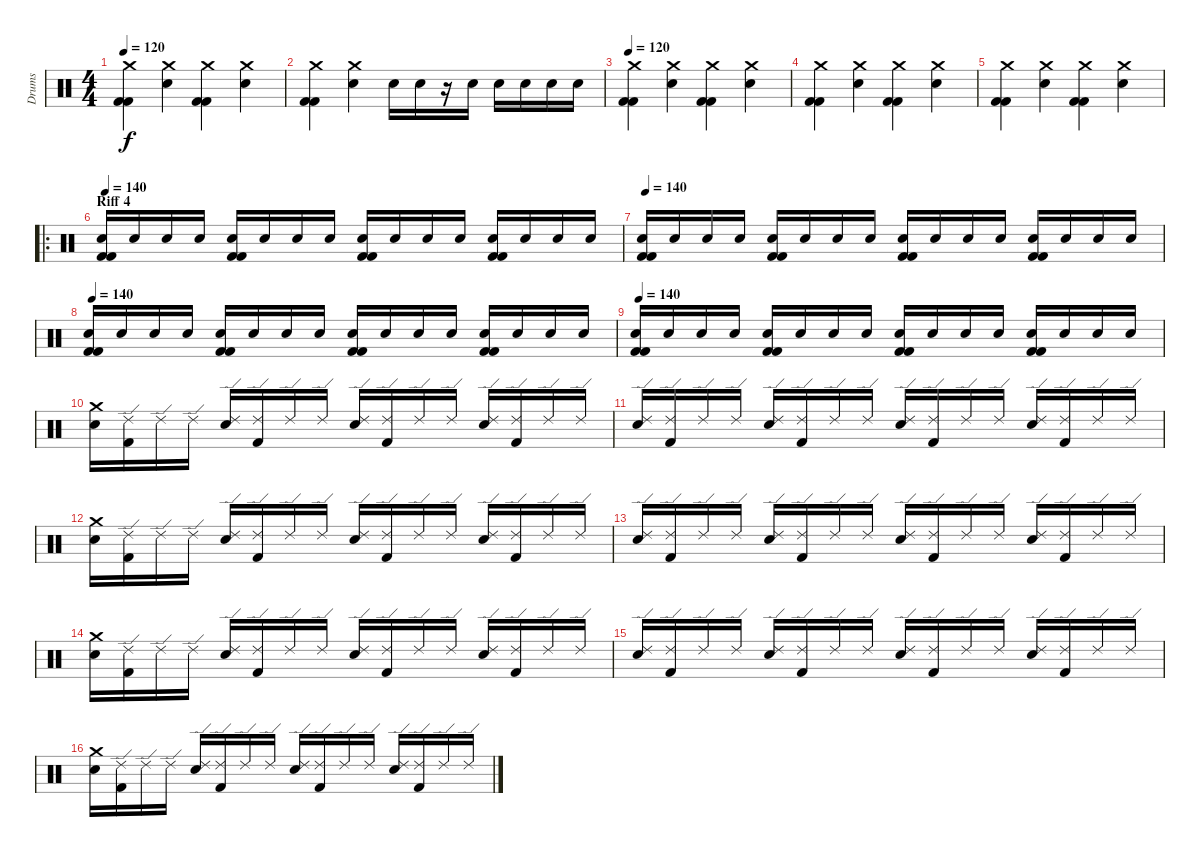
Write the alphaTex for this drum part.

\track ("Drums" "Drums") {instrument percussion}
\staff {score}
\articulation defaults
\ts (4 4)
\tempo 120
\clef neutral
\ks c
("Crash medium (hit)" "Kick (hit) 2" "Kick (hit) 2").4{dy f} ("Electric Snare (hit)" "Crash medium (hit)").4 ("Kick (hit) 2" "Kick (hit) 2" "Crash medium (hit)").4 ("Crash medium (hit)" "Electric Snare (hit)").4 |
("Crash medium (hit)" "Kick (hit) 2" "Kick (hit) 2").4 ("Electric Snare (hit)" "Crash medium (hit)").4 "Electric Snare (hit)".16 "Electric Snare (hit)".16 r.16 "Electric Snare (hit)".16 "Electric Snare (hit)".16 "Electric Snare (hit)".16 "Electric Snare (hit)".16 "Electric Snare (hit)".16 |
\tempo 120
("Crash medium (hit)" "Kick (hit) 2" "Kick (hit) 2").4 ("Electric Snare (hit)" "Crash medium (hit)").4 ("Kick (hit) 2" "Kick (hit) 2" "Crash medium (hit)").4 ("Crash medium (hit)" "Electric Snare (hit)").4 |
("Crash medium (hit)" "Kick (hit) 2" "Kick (hit) 2").4 ("Electric Snare (hit)" "Crash medium (hit)").4 ("Kick (hit) 2" "Kick (hit) 2" "Crash medium (hit)").4 ("Crash medium (hit)" "Electric Snare (hit)").4 |
("Crash medium (hit)" "Kick (hit) 2" "Kick (hit) 2").4 ("Electric Snare (hit)" "Crash medium (hit)").4 ("Kick (hit) 2" "Kick (hit) 2" "Crash medium (hit)").4 ("Crash medium (hit)" "Electric Snare (hit)").4 |
\ro
\section ("" "Riff 4 ")
\tempo 140
("Kick (hit) 2" "Electric Snare (hit)" "Kick (hit) 2").16 "Electric Snare (hit)".16 "Electric Snare (hit)".16 "Electric Snare (hit)".16 ("Kick (hit) 2" "Kick (hit) 2" "Electric Snare (hit)").16 "Electric Snare (hit)".16 "Electric Snare (hit)".16 "Electric Snare (hit)".16 ("Kick (hit) 2" "Kick (hit) 2" "Electric Snare (hit)").16 "Electric Snare (hit)".16 "Electric Snare (hit)".16 "Electric Snare (hit)".16 ("Kick (hit) 2" "Kick (hit) 2" "Electric Snare (hit)").16 "Electric Snare (hit)".16 "Electric Snare (hit)".16 "Electric Snare (hit)".16 |
\tempo 140
("Kick (hit) 2" "Electric Snare (hit)" "Kick (hit) 2").16 "Electric Snare (hit)".16 "Electric Snare (hit)".16 "Electric Snare (hit)".16 ("Kick (hit) 2" "Kick (hit) 2" "Electric Snare (hit)").16 "Electric Snare (hit)".16 "Electric Snare (hit)".16 "Electric Snare (hit)".16 ("Kick (hit) 2" "Kick (hit) 2" "Electric Snare (hit)").16 "Electric Snare (hit)".16 "Electric Snare (hit)".16 "Electric Snare (hit)".16 ("Kick (hit) 2" "Kick (hit) 2" "Electric Snare (hit)").16 "Electric Snare (hit)".16 "Electric Snare (hit)".16 "Electric Snare (hit)".16 |
\tempo 140
("Kick (hit) 2" "Electric Snare (hit)" "Kick (hit) 2").16 "Electric Snare (hit)".16 "Electric Snare (hit)".16 "Electric Snare (hit)".16 ("Kick (hit) 2" "Kick (hit) 2" "Electric Snare (hit)").16 "Electric Snare (hit)".16 "Electric Snare (hit)".16 "Electric Snare (hit)".16 ("Kick (hit) 2" "Kick (hit) 2" "Electric Snare (hit)").16 "Electric Snare (hit)".16 "Electric Snare (hit)".16 "Electric Snare (hit)".16 ("Kick (hit) 2" "Kick (hit) 2" "Electric Snare (hit)").16 "Electric Snare (hit)".16 "Electric Snare (hit)".16 "Electric Snare (hit)".16 |
\tempo 140
("Kick (hit) 2" "Electric Snare (hit)" "Kick (hit) 2").16 "Electric Snare (hit)".16 "Electric Snare (hit)".16 "Electric Snare (hit)".16 ("Kick (hit) 2" "Kick (hit) 2" "Electric Snare (hit)").16 "Electric Snare (hit)".16 "Electric Snare (hit)".16 "Electric Snare (hit)".16 ("Kick (hit) 2" "Kick (hit) 2" "Electric Snare (hit)").16 "Electric Snare (hit)".16 "Electric Snare (hit)".16 "Electric Snare (hit)".16 ("Kick (hit) 2" "Kick (hit) 2" "Electric Snare (hit)").16 "Electric Snare (hit)".16 "Electric Snare (hit)".16 "Electric Snare (hit)".16 |
("Crash medium (hit)" "Electric Snare (hit)").16 ("Ride (edge) 2" "Kick (hit) 2").16 "Ride (edge) 2".16 "Ride (edge) 2".16 ("Electric Snare (hit)" "Ride (edge) 2").16 ("Ride (edge) 2" "Kick (hit) 2").16 "Ride (edge) 2".16 "Ride (edge) 2".16 ("Ride (edge) 2" "Electric Snare (hit)").16 ("Kick (hit) 2" "Ride (edge) 2").16 "Ride (edge) 2".16 "Ride (edge) 2".16 ("Ride (edge) 2" "Electric Snare (hit)").16 ("Kick (hit) 2" "Ride (edge) 2").16 "Ride (edge) 2".16 "Ride (edge) 2".16 |
("Ride (edge) 2" "Electric Snare (hit)").16 ("Ride (edge) 2" "Kick (hit) 2").16 "Ride (edge) 2".16 "Ride (edge) 2".16 ("Electric Snare (hit)" "Ride (edge) 2").16 ("Ride (edge) 2" "Kick (hit) 2").16 "Ride (edge) 2".16 "Ride (edge) 2".16 ("Ride (edge) 2" "Electric Snare (hit)").16 ("Kick (hit) 2" "Ride (edge) 2").16 "Ride (edge) 2".16 "Ride (edge) 2".16 ("Ride (edge) 2" "Electric Snare (hit)").16 ("Kick (hit) 2" "Ride (edge) 2").16 "Ride (edge) 2".16 "Ride (edge) 2".16 |
("Crash medium (hit)" "Electric Snare (hit)").16 ("Ride (edge) 2" "Kick (hit) 2").16 "Ride (edge) 2".16 "Ride (edge) 2".16 ("Electric Snare (hit)" "Ride (edge) 2").16 ("Ride (edge) 2" "Kick (hit) 2").16 "Ride (edge) 2".16 "Ride (edge) 2".16 ("Ride (edge) 2" "Electric Snare (hit)").16 ("Kick (hit) 2" "Ride (edge) 2").16 "Ride (edge) 2".16 "Ride (edge) 2".16 ("Ride (edge) 2" "Electric Snare (hit)").16 ("Kick (hit) 2" "Ride (edge) 2").16 "Ride (edge) 2".16 "Ride (edge) 2".16 |
("Ride (edge) 2" "Electric Snare (hit)").16 ("Ride (edge) 2" "Kick (hit) 2").16 "Ride (edge) 2".16 "Ride (edge) 2".16 ("Electric Snare (hit)" "Ride (edge) 2").16 ("Ride (edge) 2" "Kick (hit) 2").16 "Ride (edge) 2".16 "Ride (edge) 2".16 ("Ride (edge) 2" "Electric Snare (hit)").16 ("Kick (hit) 2" "Ride (edge) 2").16 "Ride (edge) 2".16 "Ride (edge) 2".16 ("Ride (edge) 2" "Electric Snare (hit)").16 ("Kick (hit) 2" "Ride (edge) 2").16 "Ride (edge) 2".16 "Ride (edge) 2".16 |
("Crash medium (hit)" "Electric Snare (hit)").16 ("Ride (edge) 2" "Kick (hit) 2").16 "Ride (edge) 2".16 "Ride (edge) 2".16 ("Electric Snare (hit)" "Ride (edge) 2").16 ("Ride (edge) 2" "Kick (hit) 2").16 "Ride (edge) 2".16 "Ride (edge) 2".16 ("Ride (edge) 2" "Electric Snare (hit)").16 ("Kick (hit) 2" "Ride (edge) 2").16 "Ride (edge) 2".16 "Ride (edge) 2".16 ("Ride (edge) 2" "Electric Snare (hit)").16 ("Kick (hit) 2" "Ride (edge) 2").16 "Ride (edge) 2".16 "Ride (edge) 2".16 |
("Ride (edge) 2" "Electric Snare (hit)").16 ("Ride (edge) 2" "Kick (hit) 2").16 "Ride (edge) 2".16 "Ride (edge) 2".16 ("Electric Snare (hit)" "Ride (edge) 2").16 ("Ride (edge) 2" "Kick (hit) 2").16 "Ride (edge) 2".16 "Ride (edge) 2".16 ("Ride (edge) 2" "Electric Snare (hit)").16 ("Kick (hit) 2" "Ride (edge) 2").16 "Ride (edge) 2".16 "Ride (edge) 2".16 ("Ride (edge) 2" "Electric Snare (hit)").16 ("Kick (hit) 2" "Ride (edge) 2").16 "Ride (edge) 2".16 "Ride (edge) 2".16 |
("Crash medium (hit)" "Electric Snare (hit)").16 ("Ride (edge) 2" "Kick (hit) 2").16 "Ride (edge) 2".16 "Ride (edge) 2".16 ("Electric Snare (hit)" "Ride (edge) 2").16 ("Ride (edge) 2" "Kick (hit) 2").16 "Ride (edge) 2".16 "Ride (edge) 2".16 ("Ride (edge) 2" "Electric Snare (hit)").16 ("Kick (hit) 2" "Ride (edge) 2").16 "Ride (edge) 2".16 "Ride (edge) 2".16 ("Ride (edge) 2" "Electric Snare (hit)").16 ("Kick (hit) 2" "Ride (edge) 2").16 "Ride (edge) 2".16 "Ride (edge) 2".16
